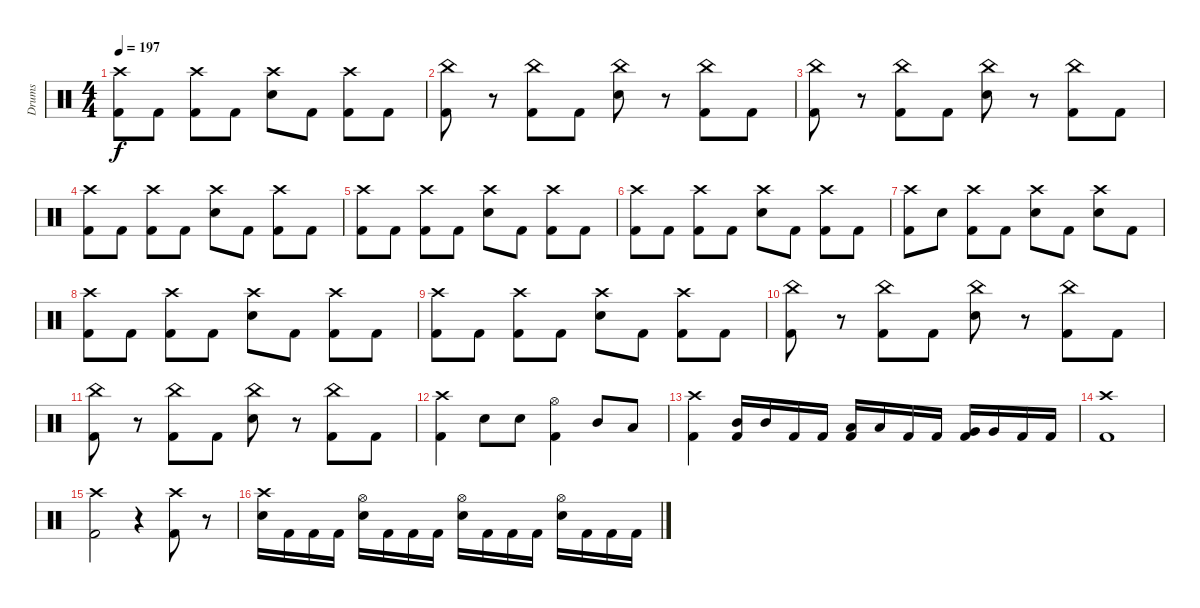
\track ("Drums" "Drums") {instrument percussion}
\staff {score}
\articulation defaults
\ts (4 4)
\tempo 197
\clef neutral
\ks c
("Crash high (hit)" "Kick (hit) 2").8{dy f} "Kick (hit) 2".8 ("Crash high (hit)" "Kick (hit) 2").8 "Kick (hit) 2".8 ("Crash high (hit)" "Electric Snare (hit)").8 "Kick (hit) 2".8 ("Crash high (hit)" "Kick (hit) 2").8 "Kick (hit) 2".8 |
("China (hit)" "Kick (hit) 2").8 r.8 ("China (hit)" "Kick (hit) 2").8 "Kick (hit) 2".8 ("China (hit)" "Electric Snare (hit)").8 r.8 ("China (hit)" "Kick (hit) 2").8 "Kick (hit) 2".8 |
("China (hit)" "Kick (hit) 2").8 r.8 ("China (hit)" "Kick (hit) 2").8 "Kick (hit) 2".8 ("China (hit)" "Electric Snare (hit)").8 r.8 ("China (hit)" "Kick (hit) 2").8 "Kick (hit) 2".8 |
("Crash high (hit)" "Kick (hit) 2").8 "Kick (hit) 2".8 ("Crash high (hit)" "Kick (hit) 2").8 "Kick (hit) 2".8 ("Crash high (hit)" "Electric Snare (hit)").8 "Kick (hit) 2".8 ("Crash high (hit)" "Kick (hit) 2").8 "Kick (hit) 2".8 |
("Crash high (hit)" "Kick (hit) 2").8 "Kick (hit) 2".8 ("Crash high (hit)" "Kick (hit) 2").8 "Kick (hit) 2".8 ("Crash high (hit)" "Electric Snare (hit)").8 "Kick (hit) 2".8 ("Crash high (hit)" "Kick (hit) 2").8 "Kick (hit) 2".8 |
("Crash high (hit)" "Kick (hit) 2").8 "Kick (hit) 2".8 ("Crash high (hit)" "Kick (hit) 2").8 "Kick (hit) 2".8 ("Crash high (hit)" "Electric Snare (hit)").8 "Kick (hit) 2".8 ("Crash high (hit)" "Kick (hit) 2").8 "Kick (hit) 2".8 |
("Crash high (hit)" "Kick (hit) 2").8 "Electric Snare (hit)".8 ("Crash high (hit)" "Kick (hit) 2").8 "Kick (hit) 2".8 ("Crash high (hit)" "Electric Snare (hit)").8 "Kick (hit) 2".8 ("Crash high (hit)" "Electric Snare (hit)").8 "Kick (hit) 2".8 |
("Crash high (hit)" "Kick (hit) 2").8 "Kick (hit) 2".8 ("Crash high (hit)" "Kick (hit) 2").8 "Kick (hit) 2".8 ("Crash high (hit)" "Electric Snare (hit)").8 "Kick (hit) 2".8 ("Crash high (hit)" "Kick (hit) 2").8 "Kick (hit) 2".8 |
("Crash high (hit)" "Kick (hit) 2").8 "Kick (hit) 2".8 ("Crash high (hit)" "Kick (hit) 2").8 "Kick (hit) 2".8 ("Crash high (hit)" "Electric Snare (hit)").8 "Kick (hit) 2".8 ("Crash high (hit)" "Kick (hit) 2").8 "Kick (hit) 2".8 |
("China (hit)" "Kick (hit) 2").8 r.8 ("China (hit)" "Kick (hit) 2").8 "Kick (hit) 2".8 ("China (hit)" "Electric Snare (hit)").8 r.8 ("China (hit)" "Kick (hit) 2").8 "Kick (hit) 2".8 |
("China (hit)" "Kick (hit) 2").8 r.8 ("China (hit)" "Kick (hit) 2").8 "Kick (hit) 2".8 ("China (hit)" "Electric Snare (hit)").8 r.8 ("China (hit)" "Kick (hit) 2").8 "Kick (hit) 2".8 |
("Crash high (hit)" "Kick (hit) 2").4 "Electric Snare (hit)".8 "Electric Snare (hit)".8 ("Hi-Hat (open)" "Kick (hit) 2").4 "Mid Tom (hit)".8 "Low Tom (hit)".8 |
("Crash high (hit)" "Kick (hit) 2").4 ("Mid Tom (hit)" "Kick (hit) 2").16 "Mid Tom (hit)".16 "Kick (hit) 2".16 "Kick (hit) 2".16 ("Low Tom (hit)" "Kick (hit) 2").16 "Low Tom (hit)".16 "Kick (hit) 2".16 "Kick (hit) 2".16 ("Very Low Tom (hit)" "Kick (hit) 2").16 "Very Low Tom (hit)".16 "Kick (hit) 2".16 "Kick (hit) 2".16 |
("Crash high (hit)" "Kick (hit) 2").1 |
("Crash high (hit)" "Kick (hit) 2").2 r.4 ("Crash high (hit)" "Kick (hit) 2").8 r.8 |
("Crash high (hit)" "Electric Snare (hit)").16 "Kick (hit) 2".16 "Kick (hit) 2".16 "Kick (hit) 2".16 ("Hi-Hat (open)" "Electric Snare (hit)").16 "Kick (hit) 2".16 "Kick (hit) 2".16 "Kick (hit) 2".16 ("Hi-Hat (open)" "Electric Snare (hit)").16 "Kick (hit) 2".16 "Kick (hit) 2".16 "Kick (hit) 2".16 ("Hi-Hat (open)" "Electric Snare (hit)").16 "Kick (hit) 2".16 "Kick (hit) 2".16 "Kick (hit) 2".16
